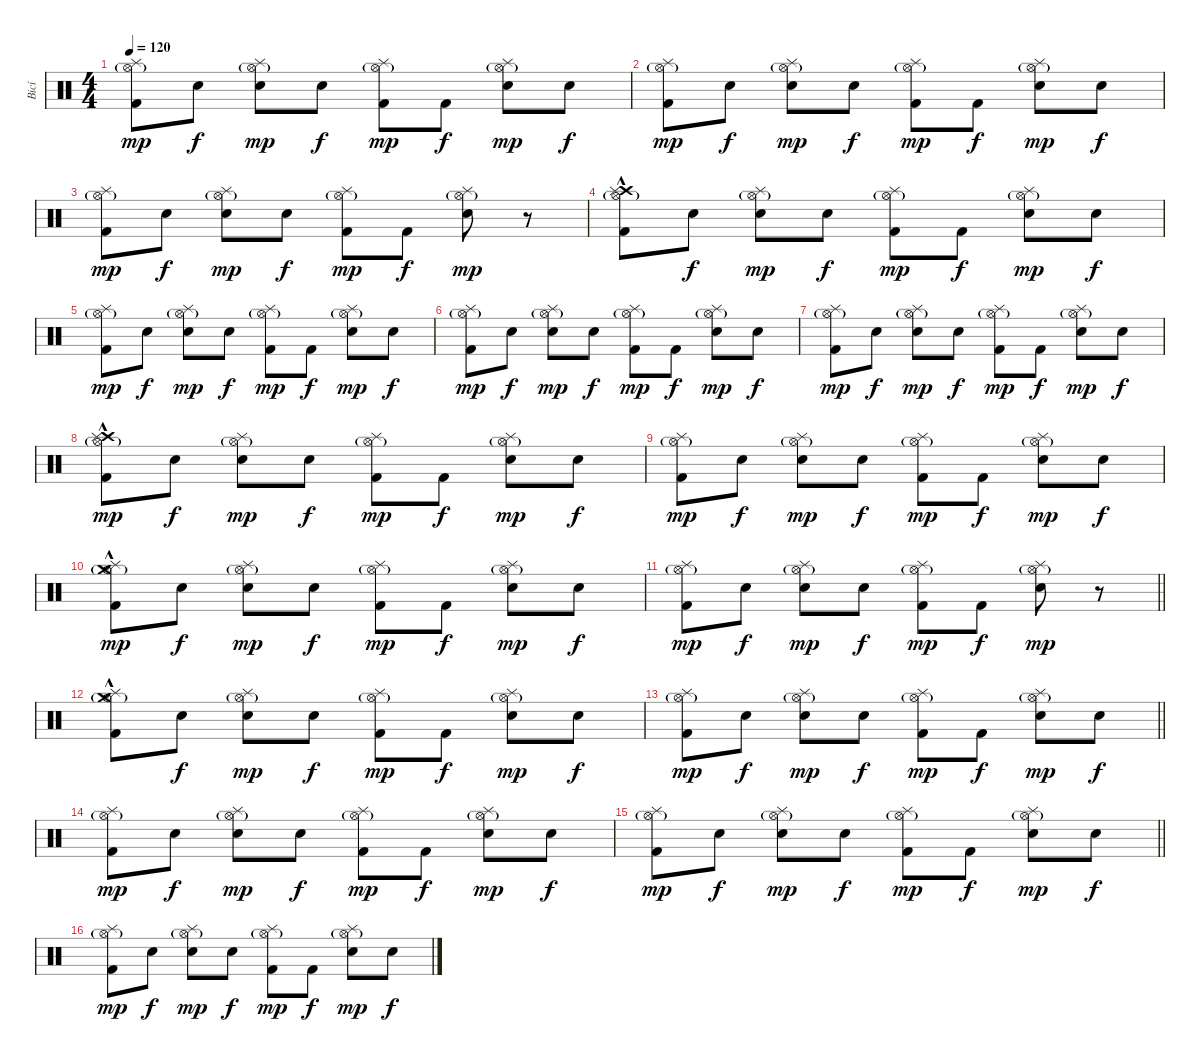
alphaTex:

\track ("Bicí" "Bicí") {instrument percussion}
\staff {score}
\articulation defaults
\ts (4 4)
\tempo 120
\clef neutral
\ks c
("Splash (hit)" "Hi-Hat (open)"{g} "Kick (hit) 2").8{dy mp} "Snare (hit)".8{dy f} ("Splash (hit)" "Hi-Hat (open)"{g} "Electric Snare (hit)").8{dy mp} "Snare (hit)".8{dy f} ("Splash (hit)" "Hi-Hat (open)"{g} "Kick (hit) 2").8{dy mp} "Kick (hit) 2".8{dy f} ("Splash (hit)" "Hi-Hat (open)"{g} "Electric Snare (hit)").8{dy mp} "Snare (hit)".8{dy f} |
("Splash (hit)" "Hi-Hat (open)"{g} "Kick (hit) 2").8{dy mp} "Snare (hit)".8{dy f} ("Splash (hit)" "Hi-Hat (open)"{g} "Electric Snare (hit)").8{dy mp} "Snare (hit)".8{dy f} ("Splash (hit)" "Hi-Hat (open)"{g} "Kick (hit) 2").8{dy mp} "Kick (hit) 2".8{dy f} ("Splash (hit)" "Hi-Hat (open)"{g} "Electric Snare (hit)").8{dy mp} "Snare (hit)".8{dy f} |
("Splash (hit)" "Hi-Hat (open)"{g} "Kick (hit) 2").8{dy mp} "Snare (hit)".8{dy f} ("Splash (hit)" "Hi-Hat (open)"{g} "Electric Snare (hit)").8{dy mp} "Snare (hit)".8{dy f} ("Splash (hit)" "Hi-Hat (open)"{g} "Kick (hit) 2").8{dy mp} "Kick (hit) 2".8{dy f} ("Splash (hit)" "Hi-Hat (open)"{g} "Electric Snare (hit)").8{dy mp} r.8 |
("Crash high (hit)"{hac} "Splash (hit)" "Hi-Hat (open)"{g} "Kick (hit) 2").8 "Snare (hit)".8{dy f} ("Splash (hit)" "Hi-Hat (open)"{g} "Electric Snare (hit)").8{dy mp} "Snare (hit)".8{dy f} ("Splash (hit)" "Hi-Hat (open)"{g} "Kick (hit) 2").8{dy mp} "Kick (hit) 2".8{dy f} ("Splash (hit)" "Hi-Hat (open)"{g} "Electric Snare (hit)").8{dy mp} "Snare (hit)".8{dy f} |
("Splash (hit)" "Hi-Hat (open)"{g} "Kick (hit) 2").8{dy mp} "Snare (hit)".8{dy f} ("Splash (hit)" "Hi-Hat (open)"{g} "Electric Snare (hit)").8{dy mp} "Snare (hit)".8{dy f} ("Splash (hit)" "Hi-Hat (open)"{g} "Kick (hit) 2").8{dy mp} "Kick (hit) 2".8{dy f} ("Splash (hit)" "Hi-Hat (open)"{g} "Electric Snare (hit)").8{dy mp} "Snare (hit)".8{dy f} |
("Splash (hit)" "Hi-Hat (open)"{g} "Kick (hit) 2").8{dy mp} "Snare (hit)".8{dy f} ("Splash (hit)" "Hi-Hat (open)"{g} "Electric Snare (hit)").8{dy mp} "Snare (hit)".8{dy f} ("Splash (hit)" "Hi-Hat (open)"{g} "Kick (hit) 2").8{dy mp} "Kick (hit) 2".8{dy f} ("Splash (hit)" "Hi-Hat (open)"{g} "Electric Snare (hit)").8{dy mp} "Snare (hit)".8{dy f} |
("Splash (hit)" "Hi-Hat (open)"{g} "Kick (hit) 2").8{dy mp} "Snare (hit)".8{dy f} ("Splash (hit)" "Hi-Hat (open)"{g} "Electric Snare (hit)").8{dy mp} "Snare (hit)".8{dy f} ("Splash (hit)" "Hi-Hat (open)"{g} "Kick (hit) 2").8{dy mp} "Kick (hit) 2".8{dy f} ("Splash (hit)" "Hi-Hat (open)"{g} "Electric Snare (hit)").8{dy mp} "Snare (hit)".8{dy f} |
("Crash high (hit)"{hac} "Splash (hit)" "Hi-Hat (open)"{g} "Kick (hit) 2").8{dy mp} "Snare (hit)".8{dy f} ("Splash (hit)" "Hi-Hat (open)"{g} "Electric Snare (hit)").8{dy mp} "Snare (hit)".8{dy f} ("Splash (hit)" "Hi-Hat (open)"{g} "Kick (hit) 2").8{dy mp} "Kick (hit) 2".8{dy f} ("Splash (hit)" "Hi-Hat (open)"{g} "Electric Snare (hit)").8{dy mp} "Snare (hit)".8{dy f} |
("Splash (hit)" "Hi-Hat (open)"{g} "Kick (hit) 2").8{dy mp} "Snare (hit)".8{dy f} ("Splash (hit)" "Hi-Hat (open)"{g} "Electric Snare (hit)").8{dy mp} "Snare (hit)".8{dy f} ("Splash (hit)" "Hi-Hat (open)"{g} "Kick (hit) 2").8{dy mp} "Kick (hit) 2".8{dy f} ("Splash (hit)" "Hi-Hat (open)"{g} "Electric Snare (hit)").8{dy mp} "Snare (hit)".8{dy f} |
("Crash medium (hit)"{hac} "Splash (hit)" "Hi-Hat (open)"{g} "Kick (hit) 2").8{dy mp} "Snare (hit)".8{dy f} ("Splash (hit)" "Hi-Hat (open)"{g} "Electric Snare (hit)").8{dy mp} "Snare (hit)".8{dy f} ("Splash (hit)" "Hi-Hat (open)"{g} "Kick (hit) 2").8{dy mp} "Kick (hit) 2".8{dy f} ("Splash (hit)" "Hi-Hat (open)"{g} "Electric Snare (hit)").8{dy mp} "Snare (hit)".8{dy f} |
\barLineRight lightlight
("Splash (hit)" "Hi-Hat (open)"{g} "Kick (hit) 2").8{dy mp} "Snare (hit)".8{dy f} ("Splash (hit)" "Hi-Hat (open)"{g} "Electric Snare (hit)").8{dy mp} "Snare (hit)".8{dy f} ("Splash (hit)" "Hi-Hat (open)"{g} "Kick (hit) 2").8{dy mp} "Kick (hit) 2".8{dy f} ("Splash (hit)" "Hi-Hat (open)"{g} "Electric Snare (hit)").8{dy mp} r.8 |
("Crash medium (hit)"{hac} "Splash (hit)" "Hi-Hat (open)"{g} "Kick (hit) 2").8 "Snare (hit)".8{dy f} ("Splash (hit)" "Hi-Hat (open)"{g} "Electric Snare (hit)").8{dy mp} "Snare (hit)".8{dy f} ("Splash (hit)" "Hi-Hat (open)"{g} "Kick (hit) 2").8{dy mp} "Kick (hit) 2".8{dy f} ("Splash (hit)" "Hi-Hat (open)"{g} "Electric Snare (hit)").8{dy mp} "Snare (hit)".8{dy f} |
\barLineRight lightlight
("Splash (hit)" "Hi-Hat (open)"{g} "Kick (hit) 2").8{dy mp} "Snare (hit)".8{dy f} ("Splash (hit)" "Hi-Hat (open)"{g} "Electric Snare (hit)").8{dy mp} "Snare (hit)".8{dy f} ("Splash (hit)" "Hi-Hat (open)"{g} "Kick (hit) 2").8{dy mp} "Kick (hit) 2".8{dy f} ("Splash (hit)" "Hi-Hat (open)"{g} "Electric Snare (hit)").8{dy mp} "Snare (hit)".8{dy f} |
("Splash (hit)" "Hi-Hat (open)"{g} "Kick (hit) 2").8{dy mp} "Snare (hit)".8{dy f} ("Splash (hit)" "Hi-Hat (open)"{g} "Electric Snare (hit)").8{dy mp} "Snare (hit)".8{dy f} ("Splash (hit)" "Hi-Hat (open)"{g} "Kick (hit) 2").8{dy mp} "Kick (hit) 2".8{dy f} ("Splash (hit)" "Hi-Hat (open)"{g} "Electric Snare (hit)").8{dy mp} "Snare (hit)".8{dy f} |
\barLineRight lightlight
("Splash (hit)" "Hi-Hat (open)"{g} "Kick (hit) 2").8{dy mp} "Snare (hit)".8{dy f} ("Splash (hit)" "Hi-Hat (open)"{g} "Electric Snare (hit)").8{dy mp} "Snare (hit)".8{dy f} ("Splash (hit)" "Hi-Hat (open)"{g} "Kick (hit) 2").8{dy mp} "Kick (hit) 2".8{dy f} ("Splash (hit)" "Hi-Hat (open)"{g} "Electric Snare (hit)").8{dy mp} "Snare (hit)".8{dy f} |
("Splash (hit)" "Hi-Hat (open)"{g} "Kick (hit) 2").8{dy mp} "Snare (hit)".8{dy f} ("Splash (hit)" "Hi-Hat (open)"{g} "Electric Snare (hit)").8{dy mp} "Snare (hit)".8{dy f} ("Splash (hit)" "Hi-Hat (open)"{g} "Kick (hit) 2").8{dy mp} "Kick (hit) 2".8{dy f} ("Splash (hit)" "Hi-Hat (open)"{g} "Electric Snare (hit)").8{dy mp} "Snare (hit)".8{dy f}
